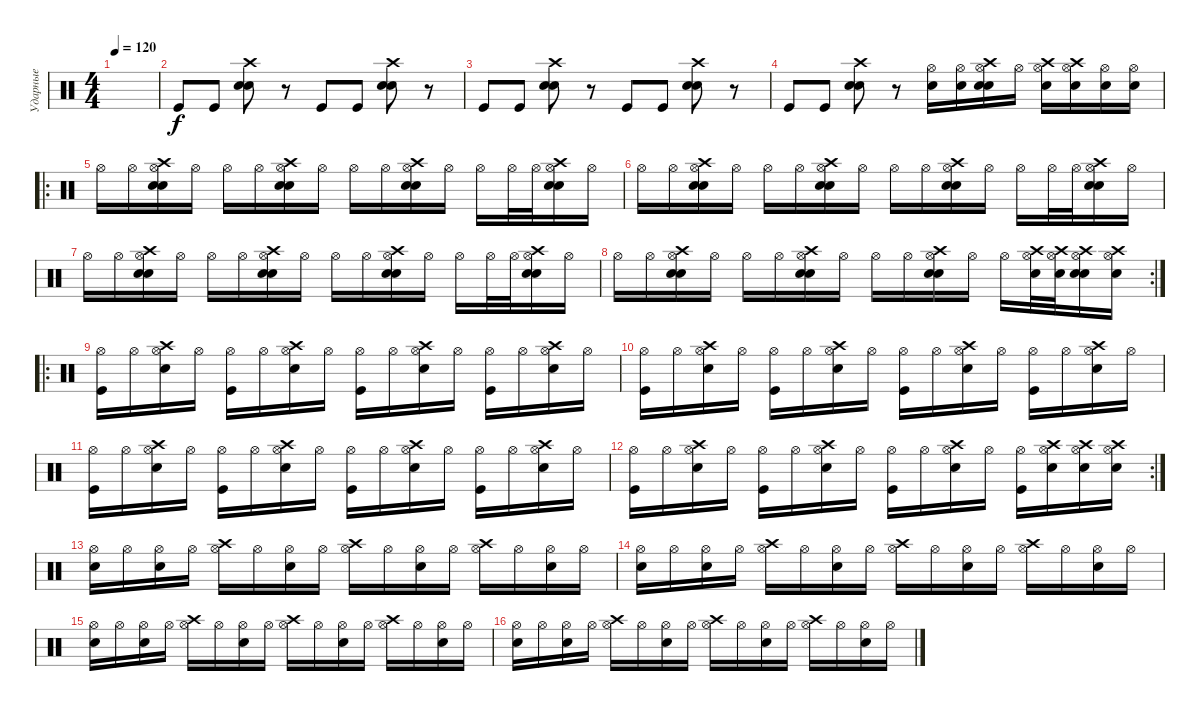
\track ("Ударные" "Ударные") {instrument percussion}
\staff {score}
\articulation defaults
\ts (4 4)
\tempo 120
\clef neutral
\ks c
|
"Kick (hit)".8 "Kick (hit)".8 ("Electric Snare (hit)" "Snare (hit) 2" "Crash high (hit)").8 r.8 "Kick (hit)".8 "Kick (hit)".8 ("Electric Snare (hit)" "Snare (hit) 2" "Crash high (hit)").8 r.8 |
"Kick (hit)".8 "Kick (hit)".8 ("Electric Snare (hit)" "Snare (hit) 2" "Crash high (hit)").8 r.8 "Kick (hit)".8 "Kick (hit)".8 ("Electric Snare (hit)" "Snare (hit) 2" "Crash high (hit)").8 r.8 |
"Kick (hit)".8 "Kick (hit)".8 ("Electric Snare (hit)" "Snare (hit) 2" "Crash high (hit)").8 r.8 ("Snare (hit) 2" "Hi-Hat (open)").16 ("Snare (hit) 2" "Hi-Hat (open)").16 ("Electric Snare (hit)" "Snare (hit) 2" "Crash high (hit)" "Hi-Hat (open)").16 "Hi-Hat (open)".16 ("Crash high (hit)" "Electric Snare (hit)" "Hi-Hat (open)").16 ("Snare (hit) 2" "Crash high (hit)" "Hi-Hat (open)").16 ("Snare (hit) 2" "Hi-Hat (open)").16 ("Snare (hit) 2" "Hi-Hat (open)").16 |
\ro "Hi-Hat (open)".16 "Hi-Hat (open)".16
("Crash high (hit)" "Snare (hit) 2" "Electric Snare (hit)" "Hi-Hat (open)").16 "Hi-Hat (open)".16 "Hi-Hat (open)".16 "Hi-Hat (open)".16 ("Crash high (hit)" "Snare (hit) 2" "Electric Snare (hit)" "Hi-Hat (open)").16 "Hi-Hat (open)".16 "Hi-Hat (open)".16 "Hi-Hat (open)".16 ("Crash high (hit)" "Electric Snare (hit)" "Snare (hit) 2" "Hi-Hat (open)").16 "Hi-Hat (open)".16 "Hi-Hat (open)".16 "Hi-Hat (open)".32 "Hi-Hat (open)".32 ("Crash high (hit)" "Snare (hit) 2" "Electric Snare (hit)" "Hi-Hat (open)").16 "Hi-Hat (open)".16 |
"Hi-Hat (open)".16 "Hi-Hat (open)".16 ("Crash high (hit)" "Snare (hit) 2" "Electric Snare (hit)" "Hi-Hat (open)").16 "Hi-Hat (open)".16 "Hi-Hat (open)".16 "Hi-Hat (open)".16 ("Crash high (hit)" "Snare (hit) 2" "Electric Snare (hit)" "Hi-Hat (open)").16 "Hi-Hat (open)".16 "Hi-Hat (open)".16 "Hi-Hat (open)".16 ("Crash high (hit)" "Electric Snare (hit)" "Snare (hit) 2" "Hi-Hat (open)").16 "Hi-Hat (open)".16 "Hi-Hat (open)".16 "Hi-Hat (open)".32 "Hi-Hat (open)".32 ("Crash high (hit)" "Snare (hit) 2" "Electric Snare (hit)" "Hi-Hat (open)").16 "Hi-Hat (open)".16 |
"Hi-Hat (open)".16 "Hi-Hat (open)".16 ("Crash high (hit)" "Snare (hit) 2" "Electric Snare (hit)" "Hi-Hat (open)").16 "Hi-Hat (open)".16 "Hi-Hat (open)".16 "Hi-Hat (open)".16 ("Crash high (hit)" "Snare (hit) 2" "Electric Snare (hit)" "Hi-Hat (open)").16 "Hi-Hat (open)".16 "Hi-Hat (open)".16 "Hi-Hat (open)".16 ("Crash high (hit)" "Electric Snare (hit)" "Snare (hit) 2" "Hi-Hat (open)").16 "Hi-Hat (open)".16 "Hi-Hat (open)".16 "Hi-Hat (open)".32 "Hi-Hat (open)".32 ("Crash high (hit)" "Snare (hit) 2" "Electric Snare (hit)" "Hi-Hat (open)").16 "Hi-Hat (open)".16 |
\rc 2 "Hi-Hat (open)".16 "Hi-Hat (open)".16
("Crash high (hit)" "Snare (hit) 2" "Electric Snare (hit)" "Hi-Hat (open)").16 "Hi-Hat (open)".16 "Hi-Hat (open)".16 "Hi-Hat (open)".16 ("Crash high (hit)" "Snare (hit) 2" "Electric Snare (hit)" "Hi-Hat (open)").16 "Hi-Hat (open)".16 "Hi-Hat (open)".16 "Hi-Hat (open)".16 ("Crash high (hit)" "Electric Snare (hit)" "Snare (hit) 2" "Hi-Hat (open)").16 "Hi-Hat (open)".16 "Hi-Hat (open)".16 ("Snare (hit) 2" "Crash high (hit)" "Hi-Hat (open)").32 ("Snare (hit) 2" "Crash high (hit)" "Hi-Hat (open)").32 ("Crash high (hit)" "Snare (hit) 2" "Electric Snare (hit)" "Hi-Hat (open)").16 ("Snare (hit) 2" "Crash high (hit)" "Hi-Hat (open)").16 |
\ro
("Hi-Hat (open)" "Kick (hit)").16 "Hi-Hat (open)".16 ("Hi-Hat (open)" "Electric Snare (hit)" "Crash high (hit)").16 "Hi-Hat (open)".16 ("Hi-Hat (open)" "Kick (hit)").16 "Hi-Hat (open)".16 ("Hi-Hat (open)" "Electric Snare (hit)" "Crash high (hit)").16 "Hi-Hat (open)".16 ("Hi-Hat (open)" "Kick (hit)").16 "Hi-Hat (open)".16 ("Hi-Hat (open)" "Electric Snare (hit)" "Crash high (hit)").16 "Hi-Hat (open)".16 ("Hi-Hat (open)" "Kick (hit)").16 "Hi-Hat (open)".16 ("Hi-Hat (open)" "Electric Snare (hit)" "Crash high (hit)").16 "Hi-Hat (open)".16 |
("Hi-Hat (open)" "Kick (hit)").16 "Hi-Hat (open)".16 ("Hi-Hat (open)" "Electric Snare (hit)" "Crash high (hit)").16 "Hi-Hat (open)".16 ("Hi-Hat (open)" "Kick (hit)").16 "Hi-Hat (open)".16 ("Hi-Hat (open)" "Electric Snare (hit)" "Crash high (hit)").16 "Hi-Hat (open)".16 ("Hi-Hat (open)" "Kick (hit)").16 "Hi-Hat (open)".16 ("Hi-Hat (open)" "Electric Snare (hit)" "Crash high (hit)").16 "Hi-Hat (open)".16 ("Hi-Hat (open)" "Kick (hit)").16 "Hi-Hat (open)".16 ("Hi-Hat (open)" "Electric Snare (hit)" "Crash high (hit)").16 "Hi-Hat (open)".16 |
("Hi-Hat (open)" "Kick (hit)").16 "Hi-Hat (open)".16 ("Hi-Hat (open)" "Electric Snare (hit)" "Crash high (hit)").16 "Hi-Hat (open)".16 ("Hi-Hat (open)" "Kick (hit)").16 "Hi-Hat (open)".16 ("Hi-Hat (open)" "Electric Snare (hit)" "Crash high (hit)").16 "Hi-Hat (open)".16 ("Hi-Hat (open)" "Kick (hit)").16 "Hi-Hat (open)".16 ("Hi-Hat (open)" "Electric Snare (hit)" "Crash high (hit)").16 "Hi-Hat (open)".16 ("Hi-Hat (open)" "Kick (hit)").16 "Hi-Hat (open)".16 ("Hi-Hat (open)" "Electric Snare (hit)" "Crash high (hit)").16 "Hi-Hat (open)".16 |
\rc 2
("Hi-Hat (open)" "Kick (hit)").16 "Hi-Hat (open)".16 ("Hi-Hat (open)" "Electric Snare (hit)" "Crash high (hit)").16 "Hi-Hat (open)".16 ("Hi-Hat (open)" "Kick (hit)").16 "Hi-Hat (open)".16 ("Hi-Hat (open)" "Electric Snare (hit)" "Crash high (hit)").16 "Hi-Hat (open)".16 ("Hi-Hat (open)" "Kick (hit)").16 "Hi-Hat (open)".16 ("Hi-Hat (open)" "Electric Snare (hit)" "Crash high (hit)").16 "Hi-Hat (open)".16 ("Hi-Hat (open)" "Kick (hit)").16 ("Hi-Hat (open)" "Snare (hit) 2" "Crash high (hit)").16 ("Hi-Hat (open)" "Electric Snare (hit)" "Crash high (hit)").16 ("Hi-Hat (open)" "Snare (hit) 2" "Crash high (hit)").16 |
("Hi-Hat (open)" "Snare (hit) 2").16 "Hi-Hat (open)".16 ("Hi-Hat (open)" "Snare (hit) 2").16 "Hi-Hat (open)".16 ("Hi-Hat (open)" "Crash high (hit)").16 "Hi-Hat (open)".16 ("Hi-Hat (open)" "Snare (hit) 2").16 "Hi-Hat (open)".16 ("Hi-Hat (open)" "Crash high (hit)").16 "Hi-Hat (open)".16 ("Hi-Hat (open)" "Snare (hit) 2").16 "Hi-Hat (open)".16 ("Hi-Hat (open)" "Crash high (hit)").16 "Hi-Hat (open)".16 ("Hi-Hat (open)" "Snare (hit) 2").16 "Hi-Hat (open)".16 |
("Hi-Hat (open)" "Snare (hit) 2").16 "Hi-Hat (open)".16 ("Hi-Hat (open)" "Snare (hit) 2").16 "Hi-Hat (open)".16 ("Hi-Hat (open)" "Crash high (hit)").16 "Hi-Hat (open)".16 ("Hi-Hat (open)" "Snare (hit) 2").16 "Hi-Hat (open)".16 ("Hi-Hat (open)" "Crash high (hit)").16 "Hi-Hat (open)".16 ("Hi-Hat (open)" "Snare (hit) 2").16 "Hi-Hat (open)".16 ("Hi-Hat (open)" "Crash high (hit)").16 "Hi-Hat (open)".16 ("Hi-Hat (open)" "Snare (hit) 2").16 "Hi-Hat (open)".16 |
("Hi-Hat (open)" "Snare (hit) 2").16 "Hi-Hat (open)".16 ("Hi-Hat (open)" "Snare (hit) 2").16 "Hi-Hat (open)".16 ("Hi-Hat (open)" "Crash high (hit)").16 "Hi-Hat (open)".16 ("Hi-Hat (open)" "Snare (hit) 2").16 "Hi-Hat (open)".16 ("Hi-Hat (open)" "Crash high (hit)").16 "Hi-Hat (open)".16 ("Hi-Hat (open)" "Snare (hit) 2").16 "Hi-Hat (open)".16 ("Hi-Hat (open)" "Crash high (hit)").16 "Hi-Hat (open)".16 ("Hi-Hat (open)" "Snare (hit) 2").16 "Hi-Hat (open)".16 |
("Hi-Hat (open)" "Snare (hit) 2").16 "Hi-Hat (open)".16 ("Hi-Hat (open)" "Snare (hit) 2").16 "Hi-Hat (open)".16 ("Hi-Hat (open)" "Crash high (hit)").16 "Hi-Hat (open)".16 ("Hi-Hat (open)" "Snare (hit) 2").16 "Hi-Hat (open)".16 ("Hi-Hat (open)" "Crash high (hit)").16 "Hi-Hat (open)".16 ("Hi-Hat (open)" "Snare (hit) 2").16 "Hi-Hat (open)".16 ("Hi-Hat (open)" "Crash high (hit)").16 "Hi-Hat (open)".16 ("Hi-Hat (open)" "Snare (hit) 2").16 "Hi-Hat (open)".16
